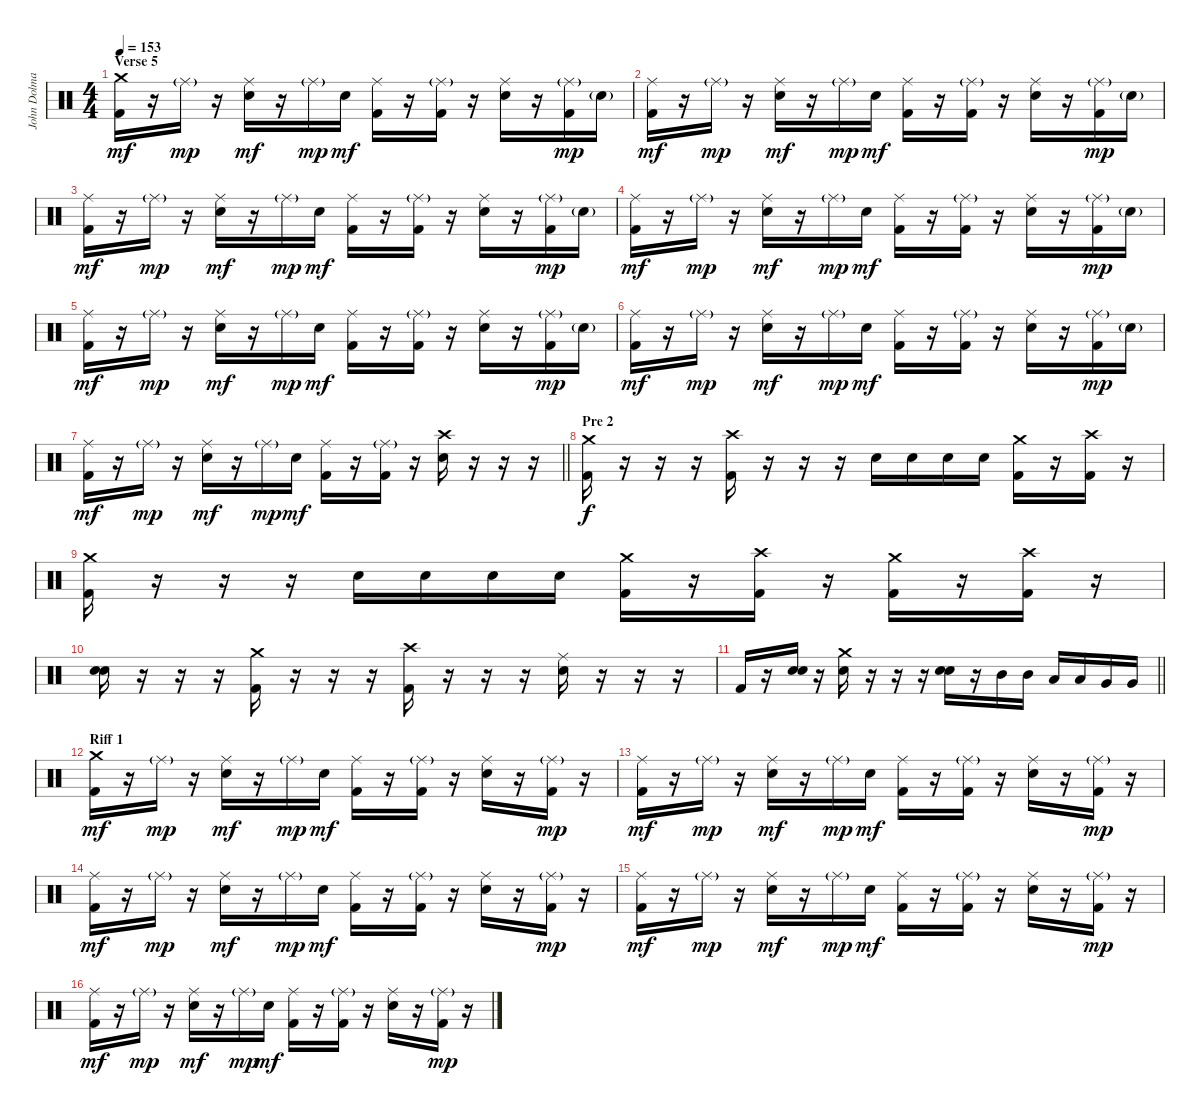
\track ("John Dolmayan" "John Dolma") {instrument percussion}
\staff {score}
\articulation defaults
\ts (4 4)
\section ("" "Verse 5")
\tempo 153
\clef neutral
\ks c
("Crash medium (hit)" "Kick (hit) 2").16{dy mf} r.16 "Ride (middle)"{g}.16{dy mp} r.16 ("Ride (middle)" "Electric Snare (hit)").16{dy mf} r.16 "Ride (middle)"{g}.16{dy mp} "Electric Snare (hit)".16{dy mf} ("Ride (middle)" "Kick (hit) 2").16 r.16 ("Ride (middle)"{g} "Kick (hit) 2").16 r.16 ("Ride (middle)" "Electric Snare (hit)").16 r.16 ("Ride (middle)"{g} "Kick (hit) 2").16{dy mp} "Electric Snare (hit)"{g}.16 |
("Ride (middle)" "Kick (hit) 2").16{dy mf} r.16 "Ride (middle)"{g}.16{dy mp} r.16 ("Ride (middle)" "Electric Snare (hit)").16{dy mf} r.16 "Ride (middle)"{g}.16{dy mp} "Electric Snare (hit)".16{dy mf} ("Ride (middle)" "Kick (hit) 2").16 r.16 ("Ride (middle)"{g} "Kick (hit) 2").16 r.16 ("Ride (middle)" "Electric Snare (hit)").16 r.16 ("Ride (middle)"{g} "Kick (hit) 2").16{dy mp} "Electric Snare (hit)"{g}.16 |
("Ride (middle)" "Kick (hit) 2").16{dy mf} r.16 "Ride (middle)"{g}.16{dy mp} r.16 ("Ride (middle)" "Electric Snare (hit)").16{dy mf} r.16 "Ride (middle)"{g}.16{dy mp} "Electric Snare (hit)".16{dy mf} ("Ride (middle)" "Kick (hit) 2").16 r.16 ("Ride (middle)"{g} "Kick (hit) 2").16 r.16 ("Ride (middle)" "Electric Snare (hit)").16 r.16 ("Ride (middle)"{g} "Kick (hit) 2").16{dy mp} "Electric Snare (hit)"{g}.16 |
("Ride (middle)" "Kick (hit) 2").16{dy mf} r.16 "Ride (middle)"{g}.16{dy mp} r.16 ("Ride (middle)" "Electric Snare (hit)").16{dy mf} r.16 "Ride (middle)"{g}.16{dy mp} "Electric Snare (hit)".16{dy mf} ("Ride (middle)" "Kick (hit) 2").16 r.16 ("Ride (middle)"{g} "Kick (hit) 2").16 r.16 ("Ride (middle)" "Electric Snare (hit)").16 r.16 ("Ride (middle)"{g} "Kick (hit) 2").16{dy mp} "Electric Snare (hit)"{g}.16 |
("Ride (middle)" "Kick (hit) 2").16{dy mf} r.16 "Ride (middle)"{g}.16{dy mp} r.16 ("Ride (middle)" "Electric Snare (hit)").16{dy mf} r.16 "Ride (middle)"{g}.16{dy mp} "Electric Snare (hit)".16{dy mf} ("Ride (middle)" "Kick (hit) 2").16 r.16 ("Ride (middle)"{g} "Kick (hit) 2").16 r.16 ("Ride (middle)" "Electric Snare (hit)").16 r.16 ("Ride (middle)"{g} "Kick (hit) 2").16{dy mp} "Electric Snare (hit)"{g}.16 |
("Ride (middle)" "Kick (hit) 2").16{dy mf} r.16 "Ride (middle)"{g}.16{dy mp} r.16 ("Ride (middle)" "Electric Snare (hit)").16{dy mf} r.16 "Ride (middle)"{g}.16{dy mp} "Electric Snare (hit)".16{dy mf} ("Ride (middle)" "Kick (hit) 2").16 r.16 ("Ride (middle)"{g} "Kick (hit) 2").16 r.16 ("Ride (middle)" "Electric Snare (hit)").16 r.16 ("Ride (middle)"{g} "Kick (hit) 2").16{dy mp} "Electric Snare (hit)"{g}.16 |
\barLineRight lightlight
("Ride (middle)" "Kick (hit) 2").16{dy mf} r.16 "Ride (middle)"{g}.16{dy mp} r.16 ("Ride (middle)" "Electric Snare (hit)").16{dy mf} r.16 "Ride (middle)"{g}.16{dy mp} "Electric Snare (hit)".16{dy mf} ("Ride (middle)" "Kick (hit) 2").16 r.16 ("Ride (middle)"{g} "Kick (hit) 2").16 r.16 ("Crash high (hit)" "Electric Snare (hit)").16 r.16 r.16 r.16 |
\section ("" "Pre 2")
("Crash medium (hit)" "Kick (hit) 2").16{dy f} r.16 r.16 r.16 ("Crash high (hit)" "Kick (hit) 2").16 r.16 r.16 r.16 "Electric Snare (hit)".16 "Electric Snare (hit)".16 "Electric Snare (hit)".16 "Electric Snare (hit)".16 ("Crash medium (hit)" "Kick (hit) 2").16 r.16 ("Crash high (hit)" "Kick (hit) 2").16 r.16 |
("Crash medium (hit)" "Kick (hit) 2").16 r.16 r.16 r.16 "Electric Snare (hit)".16 "Electric Snare (hit)".16 "Electric Snare (hit)".16 "Electric Snare (hit)".16 ("Crash medium (hit)" "Kick (hit) 2").16 r.16 ("Crash high (hit)" "Kick (hit) 2").16 r.16 ("Crash medium (hit)" "Kick (hit) 2").16 r.16 ("Crash high (hit)" "Kick (hit) 2").16 r.16 |
("Electric Snare (hit)" "Electric Snare (hit)").16 r.16 r.16 r.16 ("Crash medium (hit)" "Kick (hit) 2").16 r.16 r.16 r.16 ("Crash high (hit)" "Kick (hit) 2").16 r.16 r.16 r.16 ("Ride (middle)" "Electric Snare (hit)").16 r.16 r.16 r.16 |
\barLineRight lightlight "Kick (hit) 2".16
r.16 ("Electric Snare (hit)" "Electric Snare (hit)").16 r.16 ("Crash medium (hit)" "Electric Snare (hit)").16 r.16 r.16 r.16 ("Electric Snare (hit)" "Electric Snare (hit)").16 r.16 "Mid Tom (hit)".16 "Mid Tom (hit)".16 "Low Tom (hit)".16 "Low Tom (hit)".16 "Very Low Tom (hit)".16 "Very Low Tom (hit)".16 |
\section ("" "Riff 1")
("Crash medium (hit)" "Kick (hit) 2").16{dy mf} r.16 "Ride (middle)"{g}.16{dy mp} r.16 ("Ride (middle)" "Electric Snare (hit)").16{dy mf} r.16 "Ride (middle)"{g}.16{dy mp} "Electric Snare (hit)".16{dy mf} ("Ride (middle)" "Kick (hit) 2").16 r.16 ("Ride (middle)"{g} "Kick (hit) 2").16 r.16 ("Ride (middle)" "Electric Snare (hit)").16 r.16 ("Ride (middle)"{g} "Kick (hit) 2").16{dy mp} r.16 |
("Ride (middle)" "Kick (hit) 2").16{dy mf} r.16 "Ride (middle)"{g}.16{dy mp} r.16 ("Ride (middle)" "Electric Snare (hit)").16{dy mf} r.16 "Ride (middle)"{g}.16{dy mp} "Electric Snare (hit)".16{dy mf} ("Ride (middle)" "Kick (hit) 2").16 r.16 ("Ride (middle)"{g} "Kick (hit) 2").16 r.16 ("Ride (middle)" "Electric Snare (hit)").16 r.16 ("Ride (middle)"{g} "Kick (hit) 2").16{dy mp} r.16 |
("Ride (middle)" "Kick (hit) 2").16{dy mf} r.16 "Ride (middle)"{g}.16{dy mp} r.16 ("Ride (middle)" "Electric Snare (hit)").16{dy mf} r.16 "Ride (middle)"{g}.16{dy mp} "Electric Snare (hit)".16{dy mf} ("Ride (middle)" "Kick (hit) 2").16 r.16 ("Ride (middle)"{g} "Kick (hit) 2").16 r.16 ("Ride (middle)" "Electric Snare (hit)").16 r.16 ("Ride (middle)"{g} "Kick (hit) 2").16{dy mp} r.16 |
("Ride (middle)" "Kick (hit) 2").16{dy mf} r.16 "Ride (middle)"{g}.16{dy mp} r.16 ("Ride (middle)" "Electric Snare (hit)").16{dy mf} r.16 "Ride (middle)"{g}.16{dy mp} "Electric Snare (hit)".16{dy mf} ("Ride (middle)" "Kick (hit) 2").16 r.16 ("Ride (middle)"{g} "Kick (hit) 2").16 r.16 ("Ride (middle)" "Electric Snare (hit)").16 r.16 ("Ride (middle)"{g} "Kick (hit) 2").16{dy mp} r.16 |
("Ride (middle)" "Kick (hit) 2").16{dy mf} r.16 "Ride (middle)"{g}.16{dy mp} r.16 ("Ride (middle)" "Electric Snare (hit)").16{dy mf} r.16 "Ride (middle)"{g}.16{dy mp} "Electric Snare (hit)".16{dy mf} ("Ride (middle)" "Kick (hit) 2").16 r.16 ("Ride (middle)"{g} "Kick (hit) 2").16 r.16 ("Ride (middle)" "Electric Snare (hit)").16 r.16 ("Ride (middle)"{g} "Kick (hit) 2").16{dy mp} r.16
